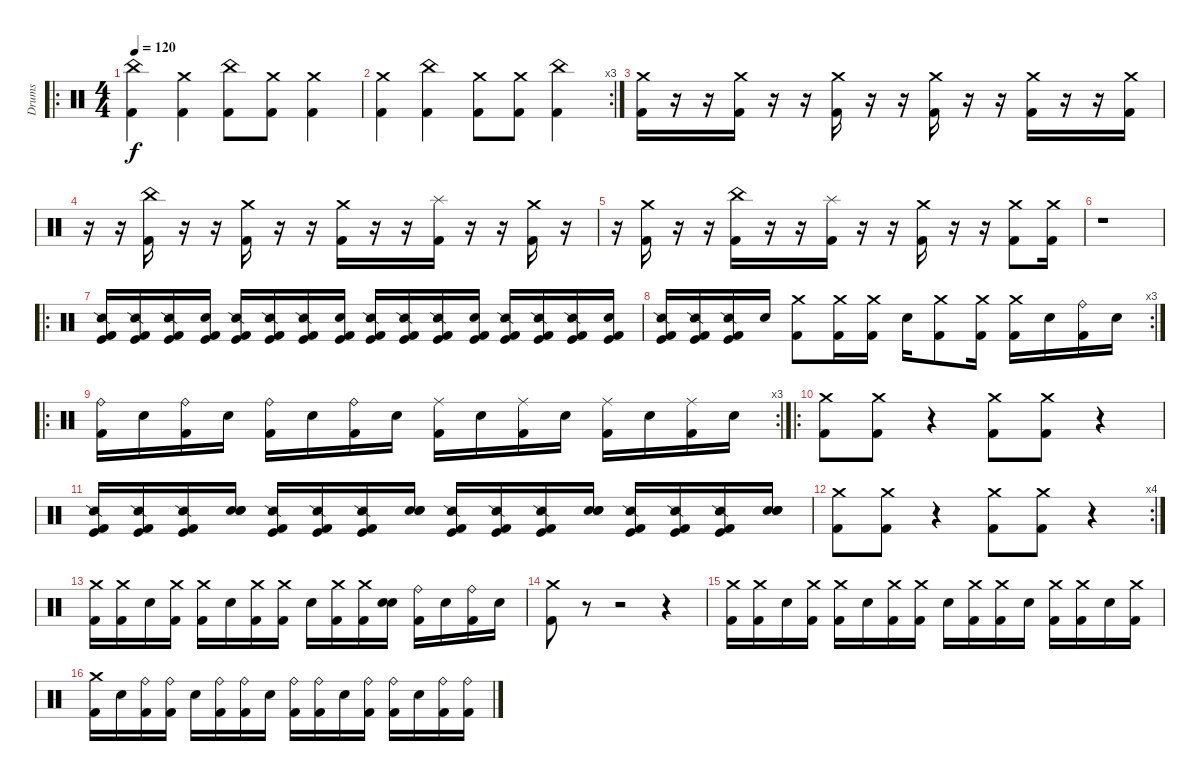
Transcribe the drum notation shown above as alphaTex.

\track ("Drums" "Drums") {instrument percussion}
\staff {score}
\articulation defaults
\ro
\ts (4 4)
\tempo 120
\clef neutral
\ks c
("China (hit)" "Kick (hit) 2").4{dy f} ("Crash medium (hit)" "Kick (hit) 2").4 ("China (hit)" "Kick (hit) 2").8 ("Crash medium (hit)" "Kick (hit) 2").8 ("Crash medium (hit)" "Kick (hit) 2").4 |
\rc 3
("Crash medium (hit)" "Kick (hit) 2").4 ("China (hit)" "Kick (hit) 2").4 ("Crash medium (hit)" "Kick (hit) 2").8 ("Crash medium (hit)" "Kick (hit) 2").8 ("China (hit)" "Kick (hit) 2").4 |
("Crash medium (hit)" "Kick (hit) 2").16 r.16 r.16 ("Crash medium (hit)" "Kick (hit) 2").16 r.16 r.16 ("Crash medium (hit)" "Kick (hit) 2").16 r.16 r.16 ("Crash medium (hit)" "Kick (hit) 2").16 r.16 r.16 ("Crash medium (hit)" "Kick (hit) 2").16 r.16 r.16 ("Crash medium (hit)" "Kick (hit) 2").16 |
r.16 r.16 ("China (hit)" "Kick (hit) 2").16 r.16 r.16 ("Crash medium (hit)" "Kick (hit) 2").16 r.16 r.16 ("Crash medium (hit)" "Kick (hit) 2").16 r.16 r.16 ("Splash (hit)" "Kick (hit) 2").16 r.16 r.16 ("Crash medium (hit)" "Kick (hit) 2").16 r.16 |
r.16 ("Crash medium (hit)" "Kick (hit) 2").16 r.16 r.16 ("China (hit)" "Kick (hit) 2").16 r.16 r.16 ("Splash (hit)" "Kick (hit) 2").16 r.16 r.16 ("Crash medium (hit)" "Kick (hit) 2").16 r.16 r.16 ("Crash medium (hit)" "Kick (hit) 2").8 ("Crash medium (hit)" "Kick (hit) 2").16 |
r.1 |
\ro
("Kick (hit)" "Kick (hit) 2" "Snare (side stick) 2").16 ("Kick (hit)" "Kick (hit) 2" "Snare (side stick) 2").16 ("Kick (hit)" "Kick (hit) 2" "Snare (side stick) 2").16 ("Kick (hit)" "Kick (hit) 2" "Electric Snare (hit)").16 ("Kick (hit)" "Kick (hit) 2" "Snare (side stick) 2").16 ("Kick (hit)" "Kick (hit) 2" "Snare (side stick) 2").16 ("Kick (hit)" "Kick (hit) 2" "Snare (side stick) 2").16 ("Kick (hit)" "Kick (hit) 2" "Electric Snare (hit)").16 ("Kick (hit)" "Kick (hit) 2" "Snare (side stick) 2").16 ("Kick (hit)" "Kick (hit) 2" "Snare (side stick) 2").16 ("Kick (hit)" "Kick (hit) 2" "Snare (side stick) 2").16 ("Kick (hit)" "Kick (hit) 2" "Electric Snare (hit)").16 ("Kick (hit)" "Kick (hit) 2" "Snare (side stick) 2").16 ("Kick (hit)" "Kick (hit) 2" "Snare (side stick) 2").16 ("Kick (hit)" "Kick (hit) 2" "Snare (side stick) 2").16 ("Kick (hit)" "Kick (hit) 2" "Electric Snare (hit)").16 |
\rc 3
("Kick (hit)" "Kick (hit) 2" "Snare (side stick) 2").16 ("Kick (hit)" "Kick (hit) 2" "Snare (side stick) 2").16 ("Kick (hit)" "Kick (hit) 2" "Snare (side stick) 2").16 "Electric Snare (hit)".16 ("Crash medium (hit)" "Kick (hit) 2").8 ("Crash medium (hit)" "Kick (hit) 2").16 ("Crash medium (hit)" "Kick (hit) 2").16 "Electric Snare (hit)".16 ("Crash medium (hit)" "Kick (hit) 2").8 ("Crash medium (hit)" "Kick (hit) 2").16 ("Crash medium (hit)" "Kick (hit) 2").16 "Electric Snare (hit)".16 ("Ride (bell)" "Kick (hit) 2").16 "Snare (hit) 2".16 |
\ro
\rc 3
("Ride (bell)" "Kick (hit) 2").16 "Snare (hit) 2".16 ("Ride (bell)" "Kick (hit) 2").16 "Snare (hit) 2".16 ("Ride (bell)" "Kick (hit) 2").16 "Snare (hit) 2".16 ("Ride (bell)" "Kick (hit) 2").16 "Snare (hit) 2".16 ("Ride (middle)" "Kick (hit) 2").16 "Snare (hit) 2".16 ("Ride (middle)" "Kick (hit) 2").16 "Snare (hit) 2".16 ("Ride (middle)" "Kick (hit) 2").16 "Snare (hit) 2".16 ("Ride (middle)" "Kick (hit) 2").16 "Snare (hit) 2".16 |
\ro
("Crash medium (hit)" "Kick (hit) 2").8 ("Crash medium (hit)" "Kick (hit) 2").8 r.4 ("Crash medium (hit)" "Kick (hit) 2").8 ("Crash medium (hit)" "Kick (hit) 2").8 r.4 |
("Kick (hit)" "Kick (hit) 2" "Snare (side stick) 2").16 ("Kick (hit)" "Kick (hit) 2" "Snare (side stick) 2").16 ("Kick (hit)" "Kick (hit) 2" "Snare (side stick) 2").16 ("Snare (hit)" "Snare (hit)" "Electric Snare (hit)").16 ("Kick (hit)" "Kick (hit) 2" "Snare (side stick) 2").16 ("Kick (hit)" "Kick (hit) 2" "Snare (side stick) 2").16 ("Kick (hit)" "Kick (hit) 2" "Snare (side stick) 2").16 ("Snare (hit)" "Snare (hit)" "Electric Snare (hit)").16 ("Kick (hit)" "Kick (hit) 2" "Snare (side stick) 2").16 ("Kick (hit)" "Kick (hit) 2" "Snare (side stick) 2").16 ("Kick (hit)" "Kick (hit) 2" "Snare (side stick) 2").16 ("Snare (hit)" "Snare (hit)" "Electric Snare (hit)").16 ("Kick (hit)" "Kick (hit) 2" "Snare (side stick) 2").16 ("Kick (hit)" "Kick (hit) 2" "Snare (side stick) 2").16 ("Kick (hit)" "Kick (hit) 2" "Snare (side stick) 2").16 ("Snare (hit)" "Snare (hit)" "Electric Snare (hit)").16 |
\rc 4
("Crash medium (hit)" "Kick (hit) 2").8 ("Crash medium (hit)" "Kick (hit) 2").8 r.4 ("Crash medium (hit)" "Kick (hit) 2").8 ("Crash medium (hit)" "Kick (hit) 2").8 r.4 |
("Crash medium (hit)" "Kick (hit) 2").16 ("Crash medium (hit)" "Kick (hit) 2").16 "Snare (hit) 2".16 ("Crash medium (hit)" "Kick (hit) 2").16 ("Crash medium (hit)" "Kick (hit) 2").16 "Snare (hit) 2".16 ("Crash medium (hit)" "Kick (hit) 2").16 ("Crash medium (hit)" "Kick (hit) 2").16 "Snare (hit) 2".16 ("Crash medium (hit)" "Kick (hit) 2").16 ("Crash medium (hit)" "Kick (hit) 2").16 ("Snare (hit)" "Snare (hit) 2").16 ("Ride (bell)" "Kick (hit) 2").16 "Snare (hit) 2".16 ("Ride (bell)" "Kick (hit) 2").16 "Snare (hit) 2".16 |
("Crash medium (hit)" "Kick (hit) 2").8 r.8 r.2 r.4 |
("Crash medium (hit)" "Kick (hit) 2").16 ("Crash medium (hit)" "Kick (hit) 2").16 "Snare (hit) 2".16 ("Crash medium (hit)" "Kick (hit) 2").16 ("Crash medium (hit)" "Kick (hit) 2").16 "Snare (hit) 2".16 ("Crash medium (hit)" "Kick (hit) 2").16 ("Crash medium (hit)" "Kick (hit) 2").16 "Snare (hit) 2".16 ("Crash medium (hit)" "Kick (hit) 2").16 ("Crash medium (hit)" "Kick (hit) 2").16 "Snare (hit) 2".16 ("Crash medium (hit)" "Kick (hit) 2").16 ("Crash medium (hit)" "Kick (hit) 2").16 "Snare (hit) 2".16 ("Crash medium (hit)" "Kick (hit) 2").16 |
("Crash medium (hit)" "Kick (hit) 2").16 "Snare (hit) 2".16 ("Ride (bell)" "Kick (hit) 2").16 ("Ride (bell)" "Kick (hit) 2").16 "Snare (hit) 2".16 ("Ride (bell)" "Kick (hit) 2").16 ("Ride (bell)" "Kick (hit) 2").16 "Snare (hit) 2".16 ("Ride (bell)" "Kick (hit) 2").16 ("Ride (bell)" "Kick (hit) 2").16 "Snare (hit) 2".16 ("Ride (bell)" "Kick (hit) 2").16 ("Ride (bell)" "Kick (hit) 2").16 "Snare (hit) 2".16 ("Ride (bell)" "Kick (hit) 2").16 ("Ride (bell)" "Kick (hit) 2").16
